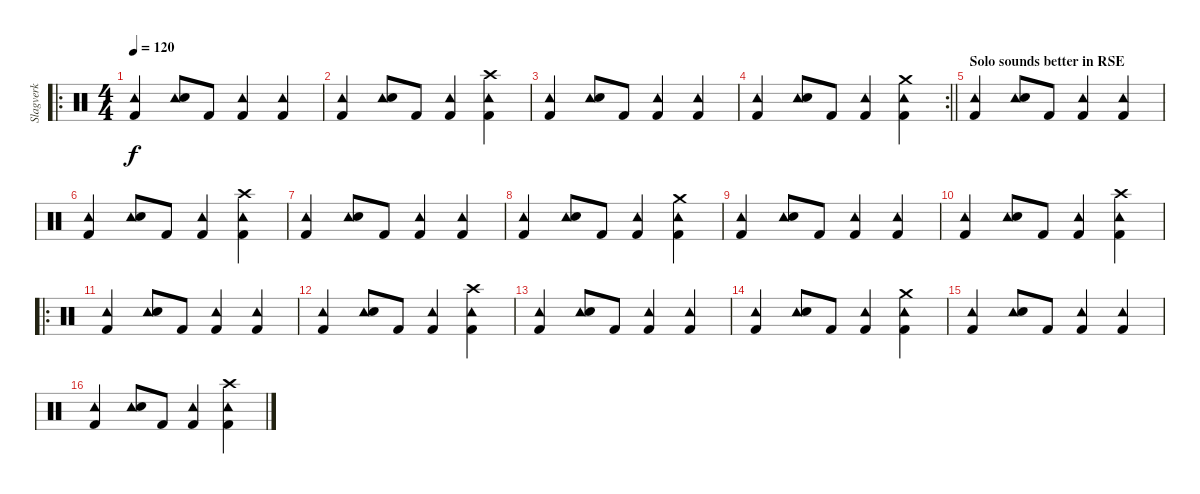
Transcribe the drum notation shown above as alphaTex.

\track ("Slagverk" "Slagverk") {instrument percussion}
\staff {score}
\articulation defaults
\ro
\ts (4 4)
\tempo 120
\clef neutral
\ks c
("Tambourine (hit)" "Kick (hit) 2").4{dy f} ("Tambourine (hit)" "Snare (hit) 2").8 "Kick (hit) 2".8 ("Tambourine (hit)" "Kick (hit) 2").4 ("Tambourine (hit)" "Kick (hit) 2").4 |
("Tambourine (hit)" "Kick (hit) 2").4 ("Tambourine (hit)" "Snare (hit) 2").8 "Kick (hit) 2".8 ("Tambourine (hit)" "Kick (hit) 2").4 ("Crash high (hit)" "Tambourine (hit)" "Kick (hit) 2").4 |
("Tambourine (hit)" "Kick (hit) 2").4 ("Tambourine (hit)" "Snare (hit) 2").8 "Kick (hit) 2".8 ("Tambourine (hit)" "Kick (hit) 2").4 ("Tambourine (hit)" "Kick (hit) 2").4 |
\rc 2
\barLineRight lightlight
("Tambourine (hit)" "Kick (hit) 2").4 ("Tambourine (hit)" "Snare (hit) 2").8 "Kick (hit) 2".8 ("Tambourine (hit)" "Kick (hit) 2").4 ("Crash medium (hit)" "Tambourine (hit)" "Kick (hit) 2").4 |
\section ("" "Solo sounds better in RSE")
("Tambourine (hit)" "Kick (hit) 2").4 ("Tambourine (hit)" "Snare (hit) 2").8 "Kick (hit) 2".8 ("Tambourine (hit)" "Kick (hit) 2").4 ("Tambourine (hit)" "Kick (hit) 2").4 |
("Tambourine (hit)" "Kick (hit) 2").4 ("Tambourine (hit)" "Snare (hit) 2").8 "Kick (hit) 2".8 ("Tambourine (hit)" "Kick (hit) 2").4 ("Crash high (hit)" "Tambourine (hit)" "Kick (hit) 2").4 |
("Tambourine (hit)" "Kick (hit) 2").4 ("Tambourine (hit)" "Snare (hit) 2").8 "Kick (hit) 2".8 ("Tambourine (hit)" "Kick (hit) 2").4 ("Tambourine (hit)" "Kick (hit) 2").4 |
("Tambourine (hit)" "Kick (hit) 2").4 ("Tambourine (hit)" "Snare (hit) 2").8 "Kick (hit) 2".8 ("Tambourine (hit)" "Kick (hit) 2").4 ("Crash medium (hit)" "Tambourine (hit)" "Kick (hit) 2").4 |
("Tambourine (hit)" "Kick (hit) 2").4 ("Tambourine (hit)" "Snare (hit) 2").8 "Kick (hit) 2".8 ("Tambourine (hit)" "Kick (hit) 2").4 ("Tambourine (hit)" "Kick (hit) 2").4 |
("Tambourine (hit)" "Kick (hit) 2").4 ("Tambourine (hit)" "Snare (hit) 2").8 "Kick (hit) 2".8 ("Tambourine (hit)" "Kick (hit) 2").4 ("Crash high (hit)" "Tambourine (hit)" "Kick (hit) 2").4 |
\ro
("Tambourine (hit)" "Kick (hit) 2").4 ("Tambourine (hit)" "Snare (hit) 2").8 "Kick (hit) 2".8 ("Tambourine (hit)" "Kick (hit) 2").4 ("Tambourine (hit)" "Kick (hit) 2").4 |
("Tambourine (hit)" "Kick (hit) 2").4 ("Tambourine (hit)" "Snare (hit) 2").8 "Kick (hit) 2".8 ("Tambourine (hit)" "Kick (hit) 2").4 ("Crash high (hit)" "Tambourine (hit)" "Kick (hit) 2").4 |
("Tambourine (hit)" "Kick (hit) 2").4 ("Tambourine (hit)" "Snare (hit) 2").8 "Kick (hit) 2".8 ("Tambourine (hit)" "Kick (hit) 2").4 ("Tambourine (hit)" "Kick (hit) 2").4 |
("Tambourine (hit)" "Kick (hit) 2").4 ("Tambourine (hit)" "Snare (hit) 2").8 "Kick (hit) 2".8 ("Tambourine (hit)" "Kick (hit) 2").4 ("Crash medium (hit)" "Tambourine (hit)" "Kick (hit) 2").4 |
("Tambourine (hit)" "Kick (hit) 2").4 ("Tambourine (hit)" "Snare (hit) 2").8 "Kick (hit) 2".8 ("Tambourine (hit)" "Kick (hit) 2").4 ("Tambourine (hit)" "Kick (hit) 2").4 |
("Tambourine (hit)" "Kick (hit) 2").4 ("Tambourine (hit)" "Snare (hit) 2").8 "Kick (hit) 2".8 ("Tambourine (hit)" "Kick (hit) 2").4 ("Crash high (hit)" "Tambourine (hit)" "Kick (hit) 2").4
